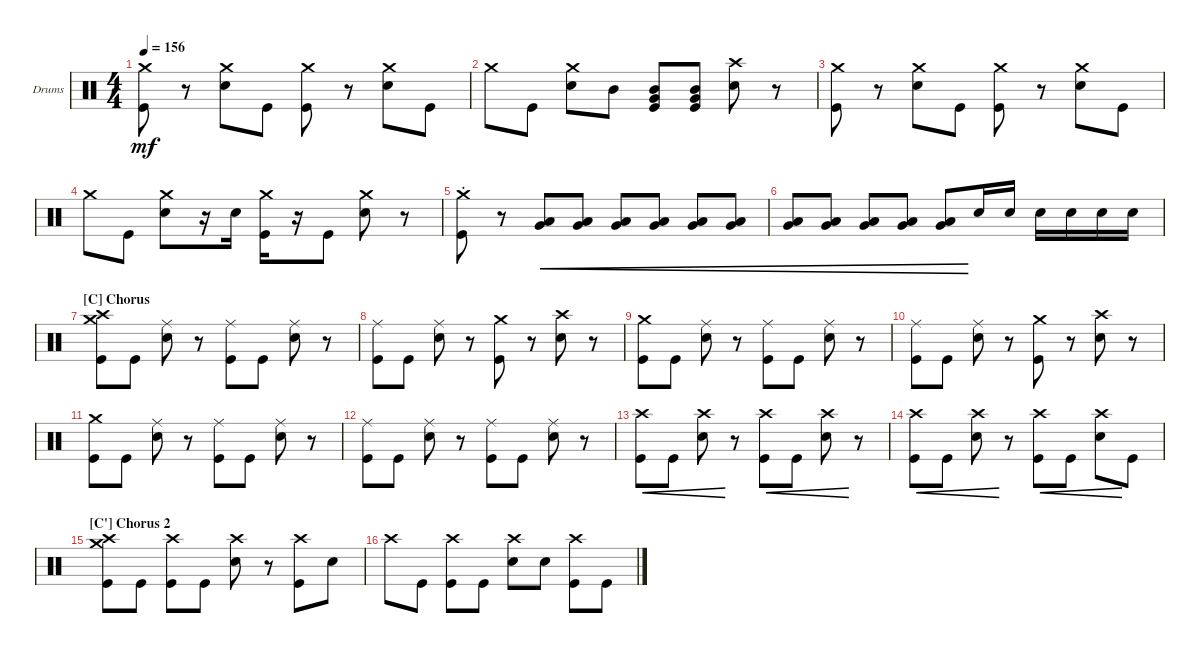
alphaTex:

\defaultSystemsLayout 4
\bracketExtendMode groupsimilarinstruments
\firstSystemTrackNameOrientation horizontal
\otherSystemsTrackNameOrientation horizontal
\track ("Drumkit" "Drums") {instrument percussion}
\staff {score}
\articulation defaults
\ts (4 4)
\tempo 156
\clef neutral
\ks c
("Kick (hit)" "Crash medium (hit)").8{dy mf} r.8 ("Snare (hit) 2" "Crash medium (hit)").8 "Kick (hit)".8 ("Kick (hit)" "Crash medium (hit)").8 r.8 ("Snare (hit) 2" "Crash medium (hit)").8 "Kick (hit)".8 |
"Crash medium (hit)".8 "Kick (hit)".8 ("Snare (hit) 2" "Crash medium (hit)").8 "Mid Tom (hit)".8 ("Kick (hit)" "Mid Tom (hit)" "Very Low Tom (hit)").8 ("Kick (hit)" "Mid Tom (hit)" "Very Low Tom (hit)").8 ("Snare (hit) 2" "Crash high (hit)").8 r.8 |
("Kick (hit)" "Crash medium (hit)").8 r.8 ("Snare (hit) 2" "Crash medium (hit)").8 "Kick (hit)".8 ("Kick (hit)" "Crash medium (hit)").8 r.8 ("Snare (hit) 2" "Crash medium (hit)").8 "Kick (hit)".8 |
"Crash medium (hit)".8 "Kick (hit)".8 ("Snare (hit) 2" "Crash medium (hit)").8 r.16 "Snare (hit) 2".16 ("Kick (hit)" "Crash medium (hit)").16 r.16 "Kick (hit)".8 ("Snare (hit) 2" "Crash medium (hit)").8 r.8 |
("Kick (hit)" "Crash medium (hit)"{st}).8 r.8 ("Very Low Tom (hit)" "Low Tom (hit)").8{cre} ("Very Low Tom (hit)" "Low Tom (hit)").8{cre} ("Very Low Tom (hit)" "Low Tom (hit)").8{cre} ("Very Low Tom (hit)" "Low Tom (hit)").8{cre} ("Very Low Tom (hit)" "Low Tom (hit)").8{cre} ("Very Low Tom (hit)" "Low Tom (hit)").8{cre} |
("Very Low Tom (hit)" "Low Tom (hit)").8{cre} ("Very Low Tom (hit)" "Low Tom (hit)").8{cre} ("Very Low Tom (hit)" "Low Tom (hit)").8{cre} ("Very Low Tom (hit)" "Low Tom (hit)").8{cre} ("Very Low Tom (hit)" "Low Tom (hit)").8{cre} "Snare (hit) 2".16 "Snare (hit) 2".16 "Snare (hit) 2".16 "Snare (hit) 2".16 "Snare (hit) 2".16 "Snare (hit) 2".16 |
\section ("C" "Chorus")
("Kick (hit)" "Crash high (hit)" "Crash medium (hit)").8 "Kick (hit)".8 ("Snare (hit) 2" "Ride (middle)").8 r.8 ("Kick (hit)" "Ride (middle)").8 "Kick (hit)".8 ("Snare (hit) 2" "Ride (middle)").8 r.8 |
("Kick (hit)" "Ride (middle)").8 "Kick (hit)".8 ("Snare (hit) 2" "Ride (middle)").8 r.8 ("Kick (hit)" "Crash medium (hit)").8 r.8 ("Snare (hit) 2" "Crash high (hit)").8 r.8 |
("Kick (hit)" "Crash medium (hit)").8 "Kick (hit)".8 ("Snare (hit) 2" "Ride (middle)").8 r.8 ("Kick (hit)" "Ride (middle)").8 "Kick (hit)".8 ("Snare (hit) 2" "Ride (middle)").8 r.8 |
("Kick (hit)" "Ride (middle)").8 "Kick (hit)".8 ("Snare (hit) 2" "Ride (middle)").8 r.8 ("Kick (hit)" "Crash medium (hit)").8 r.8 ("Snare (hit) 2" "Crash high (hit)").8 r.8 |
("Kick (hit)" "Crash medium (hit)").8 "Kick (hit)".8 ("Snare (hit) 2" "Ride (middle)").8 r.8 ("Kick (hit)" "Ride (middle)").8 "Kick (hit)".8 ("Snare (hit) 2" "Ride (middle)").8 r.8 |
("Kick (hit)" "Ride (middle)").8 "Kick (hit)".8 ("Snare (hit) 2" "Ride (middle)").8 r.8 ("Kick (hit)" "Ride (middle)").8 "Kick (hit)".8 ("Snare (hit) 2" "Ride (middle)").8 r.8 |
("Kick (hit)" "Crash high (hit)").8{cre} "Kick (hit)".8{cre} ("Snare (hit) 2" "Crash high (hit)").8{cre} r.8 ("Kick (hit)" "Crash high (hit)").8{cre} "Kick (hit)".8{cre} ("Snare (hit) 2" "Crash high (hit)").8{cre} r.8 |
("Kick (hit)" "Crash high (hit)").8{cre} "Kick (hit)".8{cre} ("Snare (hit) 2" "Crash high (hit)").8{cre} r.8 ("Kick (hit)" "Crash high (hit)").8{cre} "Kick (hit)".8{cre} ("Snare (hit) 2" "Crash high (hit)").8{cre} "Kick (hit)".8 |
\section ("C'" "Chorus 2")
("Kick (hit)" "Crash medium (hit)" "Crash high (hit)").8 "Kick (hit)".8 ("Kick (hit)" "Crash high (hit)").8 "Kick (hit)".8 ("Snare (hit) 2" "Crash high (hit)").8 r.8 ("Kick (hit)" "Crash high (hit)").8 "Snare (hit) 2".8 |
"Crash high (hit)".8 "Kick (hit)".8 ("Kick (hit)" "Crash high (hit)").8 "Kick (hit)".8 ("Snare (hit) 2" "Crash high (hit)").8 "Snare (hit) 2".8 ("Crash high (hit)" "Kick (hit)").8 "Kick (hit)".8
